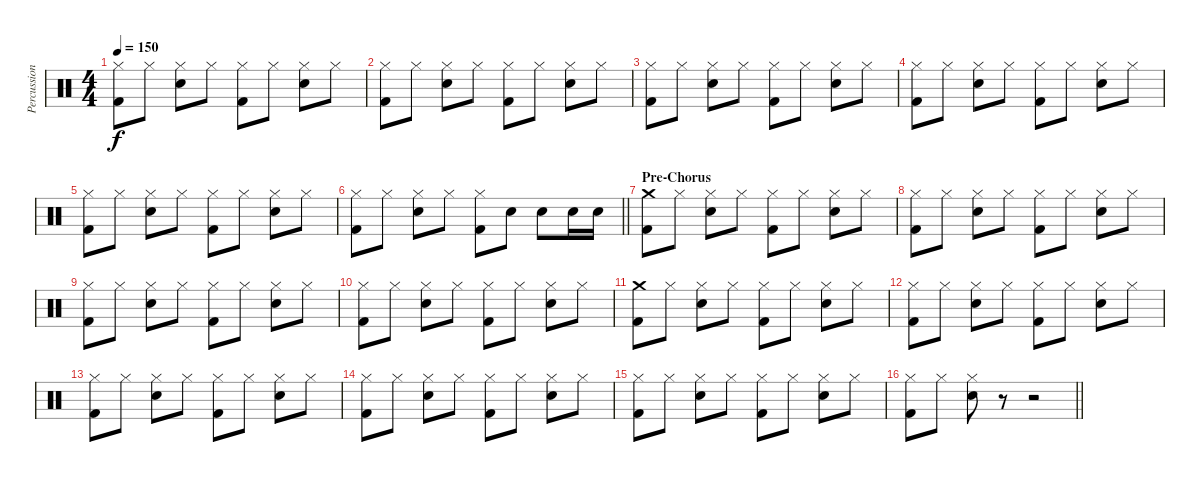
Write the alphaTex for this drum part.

\track ("Percussion" "Percussion") {instrument percussion}
\staff {score}
\articulation defaults
\ts (4 4)
\tempo 150
\clef neutral
\ks c
("Hi-Hat (closed)" "Kick (hit) 2").8{dy f} "Hi-Hat (closed)".8 ("Hi-Hat (closed)" "Snare (hit) 2").8 "Hi-Hat (closed)".8 ("Hi-Hat (closed)" "Kick (hit) 2").8 "Hi-Hat (closed)".8 ("Hi-Hat (closed)" "Snare (hit) 2").8 "Hi-Hat (closed)".8 |
("Hi-Hat (closed)" "Kick (hit) 2").8 "Hi-Hat (closed)".8 ("Hi-Hat (closed)" "Snare (hit) 2").8 "Hi-Hat (closed)".8 ("Hi-Hat (closed)" "Kick (hit) 2").8 "Hi-Hat (closed)".8 ("Hi-Hat (closed)" "Snare (hit) 2").8 "Hi-Hat (closed)".8 |
("Hi-Hat (closed)" "Kick (hit) 2").8 "Hi-Hat (closed)".8 ("Hi-Hat (closed)" "Snare (hit) 2").8 "Hi-Hat (closed)".8 ("Hi-Hat (closed)" "Kick (hit) 2").8 "Hi-Hat (closed)".8 ("Hi-Hat (closed)" "Snare (hit) 2").8 "Hi-Hat (closed)".8 |
("Hi-Hat (closed)" "Kick (hit) 2").8 "Hi-Hat (closed)".8 ("Hi-Hat (closed)" "Snare (hit) 2").8 "Hi-Hat (closed)".8 ("Hi-Hat (closed)" "Kick (hit) 2").8 "Hi-Hat (closed)".8 ("Hi-Hat (closed)" "Snare (hit) 2").8 "Hi-Hat (closed)".8 |
("Hi-Hat (closed)" "Kick (hit) 2").8 "Hi-Hat (closed)".8 ("Hi-Hat (closed)" "Snare (hit) 2").8 "Hi-Hat (closed)".8 ("Hi-Hat (closed)" "Kick (hit) 2").8 "Hi-Hat (closed)".8 ("Hi-Hat (closed)" "Snare (hit) 2").8 "Hi-Hat (closed)".8 |
\barLineRight lightlight
("Hi-Hat (closed)" "Kick (hit) 2").8 "Hi-Hat (closed)".8 ("Hi-Hat (closed)" "Snare (hit) 2").8 "Hi-Hat (closed)".8 ("Hi-Hat (closed)" "Kick (hit) 2").8 "Snare (hit) 2".8 "Snare (hit) 2".8 "Snare (hit) 2".16 "Snare (hit) 2".16 |
\section ("" "Pre-Chorus")
("Crash medium (hit)" "Kick (hit) 2").8 "Hi-Hat (closed)".8 ("Hi-Hat (closed)" "Snare (hit) 2").8 "Hi-Hat (closed)".8 ("Hi-Hat (closed)" "Kick (hit) 2").8 "Hi-Hat (closed)".8 ("Hi-Hat (closed)" "Snare (hit) 2").8 "Hi-Hat (closed)".8 |
("Hi-Hat (closed)" "Kick (hit) 2").8 "Hi-Hat (closed)".8 ("Hi-Hat (closed)" "Snare (hit) 2").8 "Hi-Hat (closed)".8 ("Hi-Hat (closed)" "Kick (hit) 2").8 "Hi-Hat (closed)".8 ("Hi-Hat (closed)" "Snare (hit) 2").8 "Hi-Hat (closed)".8 |
("Hi-Hat (closed)" "Kick (hit) 2").8 "Hi-Hat (closed)".8 ("Hi-Hat (closed)" "Snare (hit) 2").8 "Hi-Hat (closed)".8 ("Hi-Hat (closed)" "Kick (hit) 2").8 "Hi-Hat (closed)".8 ("Hi-Hat (closed)" "Snare (hit) 2").8 "Hi-Hat (closed)".8 |
("Hi-Hat (closed)" "Kick (hit) 2").8 "Hi-Hat (closed)".8 ("Hi-Hat (closed)" "Snare (hit) 2").8 "Hi-Hat (closed)".8 ("Hi-Hat (closed)" "Kick (hit) 2").8 "Hi-Hat (closed)".8 ("Hi-Hat (closed)" "Snare (hit) 2").8 "Hi-Hat (closed)".8 |
("Crash medium (hit)" "Kick (hit) 2").8 "Hi-Hat (closed)".8 ("Hi-Hat (closed)" "Snare (hit) 2").8 "Hi-Hat (closed)".8 ("Hi-Hat (closed)" "Kick (hit) 2").8 "Hi-Hat (closed)".8 ("Hi-Hat (closed)" "Snare (hit) 2").8 "Hi-Hat (closed)".8 |
("Hi-Hat (closed)" "Kick (hit) 2").8 "Hi-Hat (closed)".8 ("Hi-Hat (closed)" "Snare (hit) 2").8 "Hi-Hat (closed)".8 ("Hi-Hat (closed)" "Kick (hit) 2").8 "Hi-Hat (closed)".8 ("Hi-Hat (closed)" "Snare (hit) 2").8 "Hi-Hat (closed)".8 |
("Hi-Hat (closed)" "Kick (hit) 2").8 "Hi-Hat (closed)".8 ("Hi-Hat (closed)" "Snare (hit) 2").8 "Hi-Hat (closed)".8 ("Hi-Hat (closed)" "Kick (hit) 2").8 "Hi-Hat (closed)".8 ("Hi-Hat (closed)" "Snare (hit) 2").8 "Hi-Hat (closed)".8 |
("Hi-Hat (closed)" "Kick (hit) 2").8 "Hi-Hat (closed)".8 ("Hi-Hat (closed)" "Snare (hit) 2").8 "Hi-Hat (closed)".8 ("Hi-Hat (closed)" "Kick (hit) 2").8 "Hi-Hat (closed)".8 ("Hi-Hat (closed)" "Snare (hit) 2").8 "Hi-Hat (closed)".8 |
("Hi-Hat (closed)" "Kick (hit) 2").8 "Hi-Hat (closed)".8 ("Hi-Hat (closed)" "Snare (hit) 2").8 "Hi-Hat (closed)".8 ("Hi-Hat (closed)" "Kick (hit) 2").8 "Hi-Hat (closed)".8 ("Hi-Hat (closed)" "Snare (hit) 2").8 "Hi-Hat (closed)".8 |
\barLineRight lightlight
("Hi-Hat (closed)" "Kick (hit) 2").8 "Hi-Hat (closed)".8 ("Hi-Hat (closed)" "Snare (hit) 2").8 r.8 r.2
